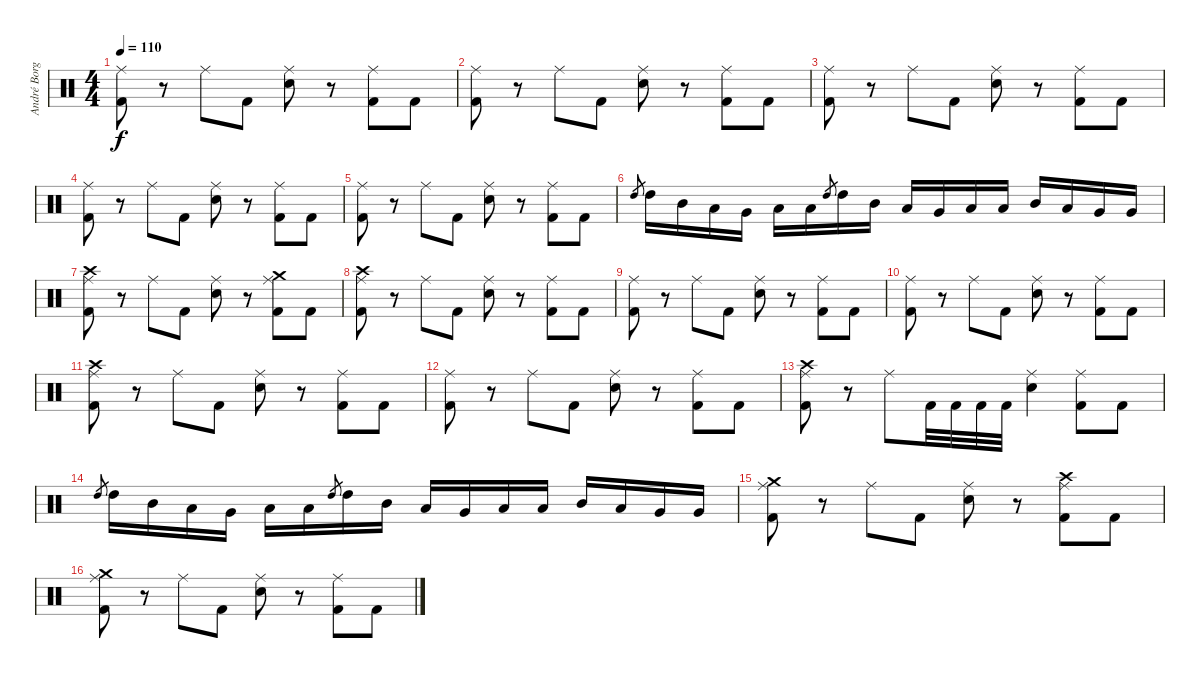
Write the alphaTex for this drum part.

\track ("André Borgman" "André Borg") {instrument percussion}
\staff {score}
\articulation defaults
\ts (4 4)
\tempo 110
\clef neutral
\ks c
("Ride (middle)" "Kick (hit) 2").8{dy f} r.8 "Ride (middle)".8 "Kick (hit) 2".8 ("Ride (middle)" "Electric Snare (hit)").8 r.8 ("Ride (middle)" "Kick (hit) 2").8 "Kick (hit) 2".8 |
("Ride (middle)" "Kick (hit) 2").8 r.8 "Ride (middle)".8 "Kick (hit) 2".8 ("Ride (middle)" "Electric Snare (hit)").8 r.8 ("Ride (middle)" "Kick (hit) 2").8 "Kick (hit) 2".8 |
("Ride (middle)" "Kick (hit) 2").8 r.8 "Ride (middle)".8 "Kick (hit) 2".8 ("Ride (middle)" "Electric Snare (hit)").8 r.8 ("Ride (middle)" "Kick (hit) 2").8 "Kick (hit) 2".8 |
("Ride (middle)" "Kick (hit) 2").8 r.8 "Ride (middle)".8 "Kick (hit) 2".8 ("Ride (middle)" "Electric Snare (hit)").8 r.8 ("Ride (middle)" "Kick (hit) 2").8 "Kick (hit) 2".8 |
("Ride (middle)" "Kick (hit) 2").8 r.8 "Ride (middle)".8 "Kick (hit) 2".8 ("Ride (middle)" "Electric Snare (hit)").8 r.8 ("Ride (middle)" "Kick (hit) 2").8 "Kick (hit) 2".8 |
"High Tom (hit)".8{gr} "High Tom (hit)".16 "Mid Tom (hit)".16 "Low Tom (hit)".16 "Very Low Tom (hit)".16 "Low Floor Tom (hit)".16 "Low Floor Tom (hit)".16 "High Tom (hit)".8{gr} "High Tom (hit)".16 "Mid Tom (hit)".16 "Low Tom (hit)".16 "Very Low Tom (hit)".16 "Low Floor Tom (hit)".16 "Low Floor Tom (hit)".16 "Mid Tom (hit)".16 "Low Tom (hit)".16 "Very Low Tom (hit)".16 "Very Low Tom (hit)".16 |
("Crash high (hit)" "Ride (middle)" "Kick (hit) 2").8 r.8 "Ride (middle)".8 "Kick (hit) 2".8 ("Ride (middle)" "Electric Snare (hit)").8 r.8 ("Crash medium (hit)" "Ride (middle)" "Kick (hit) 2").8 "Kick (hit) 2".8 |
("Crash high (hit)" "Ride (middle)" "Kick (hit) 2").8 r.8 "Ride (middle)".8 "Kick (hit) 2".8 ("Ride (middle)" "Electric Snare (hit)").8 r.8 ("Ride (middle)" "Kick (hit) 2").8 "Kick (hit) 2".8 |
("Ride (middle)" "Kick (hit) 2").8 r.8 "Ride (middle)".8 "Kick (hit) 2".8 ("Ride (middle)" "Electric Snare (hit)").8 r.8 ("Ride (middle)" "Kick (hit) 2").8 "Kick (hit) 2".8 |
("Ride (middle)" "Kick (hit) 2").8 r.8 "Ride (middle)".8 "Kick (hit) 2".8 ("Ride (middle)" "Electric Snare (hit)").8 r.8 ("Ride (middle)" "Kick (hit) 2").8 "Kick (hit) 2".8 |
("Crash high (hit)" "Ride (middle)" "Kick (hit) 2").8 r.8 "Ride (middle)".8 "Kick (hit) 2".8 ("Ride (middle)" "Electric Snare (hit)").8 r.8 ("Ride (middle)" "Kick (hit) 2").8 "Kick (hit) 2".8 |
("Ride (middle)" "Kick (hit) 2").8 r.8 "Ride (middle)".8 "Kick (hit) 2".8 ("Ride (middle)" "Electric Snare (hit)").8 r.8 ("Ride (middle)" "Kick (hit) 2").8 "Kick (hit) 2".8 |
("Crash high (hit)" "Ride (middle)" "Kick (hit) 2").8 r.8 "Ride (middle)".8 "Kick (hit) 2".32 "Kick (hit) 2".32 "Kick (hit) 2".32 "Kick (hit) 2".32 ("Ride (middle)" "Electric Snare (hit)").4 ("Ride (middle)" "Kick (hit) 2").8 "Kick (hit) 2".8 |
"High Tom (hit)".8{gr} "High Tom (hit)".16 "Mid Tom (hit)".16 "Low Tom (hit)".16 "Very Low Tom (hit)".16 "Low Floor Tom (hit)".16 "Low Floor Tom (hit)".16 "High Tom (hit)".8{gr} "High Tom (hit)".16 "Mid Tom (hit)".16 "Low Tom (hit)".16 "Very Low Tom (hit)".16 "Low Floor Tom (hit)".16 "Low Floor Tom (hit)".16 "Mid Tom (hit)".16 "Low Tom (hit)".16 "Very Low Tom (hit)".16 "Very Low Tom (hit)".16 |
("Crash medium (hit)" "Ride (middle)" "Kick (hit) 2").8 r.8 "Ride (middle)".8 "Kick (hit) 2".8 ("Ride (middle)" "Electric Snare (hit)").8 r.8 ("Crash high (hit)" "Ride (middle)" "Kick (hit) 2").8 "Kick (hit) 2".8 |
("Crash medium (hit)" "Ride (middle)" "Kick (hit) 2").8 r.8 "Ride (middle)".8 "Kick (hit) 2".8 ("Ride (middle)" "Electric Snare (hit)").8 r.8 ("Ride (middle)" "Kick (hit) 2").8 "Kick (hit) 2".8
